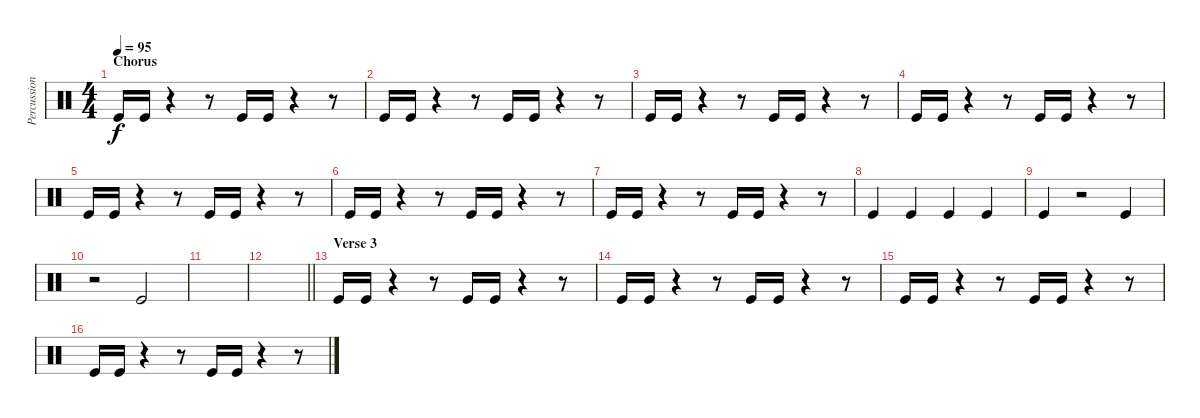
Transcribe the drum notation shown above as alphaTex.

\track ("Percussion" "Percussion") {instrument percussion}
\staff {score}
\articulation defaults
\ts (4 4)
\section ("" "Chorus")
\tempo 95
\clef neutral
\ks c "Kick (hit)".16{dy f} "Kick (hit)".16
r.4 r.8 "Kick (hit)".16 "Kick (hit)".16 r.4 r.8 |
"Kick (hit)".16 "Kick (hit)".16 r.4 r.8 "Kick (hit)".16 "Kick (hit)".16 r.4 r.8 |
"Kick (hit)".16 "Kick (hit)".16 r.4 r.8 "Kick (hit)".16 "Kick (hit)".16 r.4 r.8 |
"Kick (hit)".16 "Kick (hit)".16 r.4 r.8 "Kick (hit)".16 "Kick (hit)".16 r.4 r.8 |
"Kick (hit)".16 "Kick (hit)".16{volume 16} r.4 r.8 "Kick (hit)".16 "Kick (hit)".16 r.4 r.8 |
"Kick (hit)".16 "Kick (hit)".16 r.4 r.8 "Kick (hit)".16 "Kick (hit)".16 r.4 r.8 |
"Kick (hit)".16 "Kick (hit)".16 r.4 r.8 "Kick (hit)".16 "Kick (hit)".16 r.4 r.8 |
"Kick (hit)".4 "Kick (hit)".4 "Kick (hit)".4 "Kick (hit)".4 |
"Kick (hit)".4 r.2 "Kick (hit)".4 |
r.2 "Kick (hit)".2 |
|
\barLineRight lightlight
|
\section ("" "Verse 3")
"Kick (hit)".16 "Kick (hit)".16 r.4 r.8 "Kick (hit)".16 "Kick (hit)".16 r.4 r.8 |
"Kick (hit)".16 "Kick (hit)".16 r.4 r.8 "Kick (hit)".16 "Kick (hit)".16 r.4 r.8 |
"Kick (hit)".16 "Kick (hit)".16 r.4 r.8 "Kick (hit)".16 "Kick (hit)".16 r.4 r.8 |
"Kick (hit)".16 "Kick (hit)".16 r.4 r.8 "Kick (hit)".16 "Kick (hit)".16 r.4 r.8
